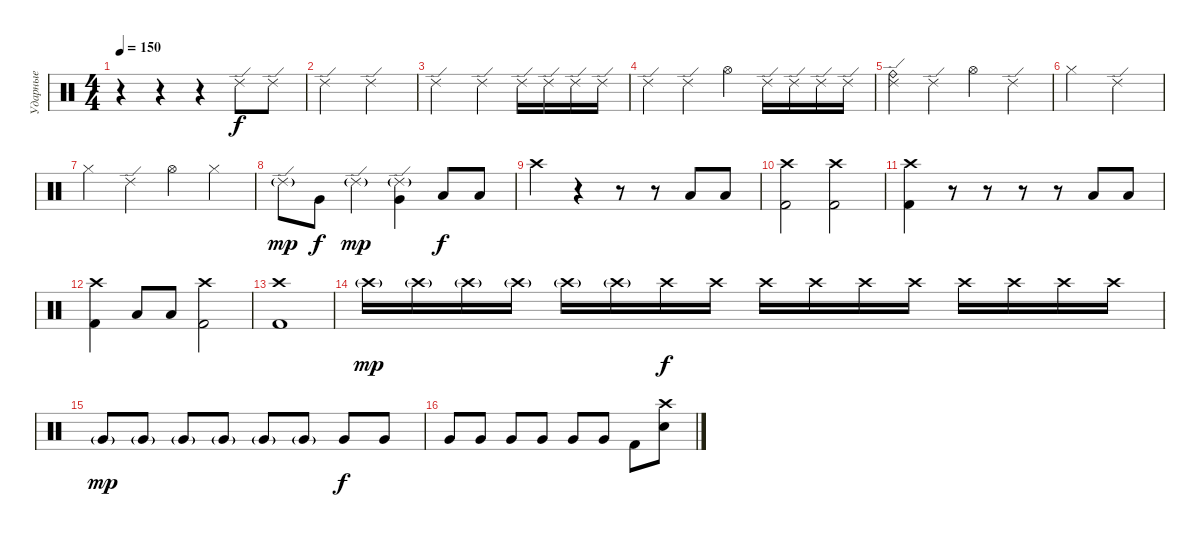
\track ("Ударные" "Ударные") {instrument percussion}
\staff {score}
\articulation defaults
\ts (4 4)
\tempo 150
\clef neutral
\ks c
r.4{dy f} r.4 r.4 "Ride (edge) 2".8 "Ride (edge) 2".8 |
"Ride (edge) 2".2 "Ride (edge) 2".2 |
"Ride (edge) 2".2 "Ride (edge) 2".4 "Ride (edge) 2".16 "Ride (edge) 2".16 "Ride (edge) 2".16 "Ride (edge) 2".16 |
"Ride (edge) 2".4 "Ride (edge) 2".4 "Hi-Hat (open)".4 "Ride (edge) 2".16 "Ride (edge) 2".16 "Ride (edge) 2".16 "Ride (edge) 2".16 |
("Ride (edge) 2" "Ride (bell)").4 "Ride (edge) 2".4 "Hi-Hat (open)".4 "Ride (edge) 2".4 |
"Hi-Hat (closed)".2 "Ride (edge) 2".2 |
"Hi-Hat (closed)".4 "Ride (edge) 2".4 "Hi-Hat (open)".4 "Hi-Hat (closed)".4 |
"Ride (edge) 2"{g}.8{dy mp} "Very Low Tom (hit)".8{dy f} "Ride (edge) 2"{g}.4{dy mp} ("Ride (edge) 2"{g} "Very Low Tom (hit)").4 "Low Floor Tom (hit)".8{dy f} "Low Floor Tom (hit)".8 |
"Crash high (hit)".4 r.4 r.8 r.8 "Low Floor Tom (hit)".8 "Low Floor Tom (hit)".8 |
("Crash high (hit)" "Kick (hit) 2").2 ("Crash high (hit)" "Kick (hit) 2").2 |
("Crash high (hit)" "Kick (hit) 2").4 r.8 r.8 r.8 r.8 "Low Floor Tom (hit)".8 "Low Floor Tom (hit)".8 |
("Crash high (hit)" "Kick (hit) 2").4 "Low Floor Tom (hit)".8 "Low Floor Tom (hit)".8 ("Crash high (hit)" "Kick (hit) 2").2 |
("Crash high (hit)" "Kick (hit) 2").1 |
"Crash high (hit)"{g}.16{dy mp} "Crash high (hit)"{g}.16 "Crash high (hit)"{g}.16 "Crash high (hit)"{g}.16 "Crash high (hit)"{g}.16 "Crash high (hit)"{g}.16 "Crash high (hit)".16{dy f} "Crash high (hit)".16 "Crash high (hit)".16 "Crash high (hit)".16 "Crash high (hit)".16 "Crash high (hit)".16 "Crash high (hit)".16 "Crash high (hit)".16 "Crash high (hit)".16 "Crash high (hit)".16 |
"Very Low Tom (hit)"{g}.8{dy mp} "Very Low Tom (hit)"{g}.8 "Very Low Tom (hit)"{g}.8 "Very Low Tom (hit)"{g}.8 "Very Low Tom (hit)"{g}.8 "Very Low Tom (hit)"{g}.8 "Very Low Tom (hit)".8{dy f} "Very Low Tom (hit)".8 |
"Very Low Tom (hit)".8 "Very Low Tom (hit)".8 "Very Low Tom (hit)".8 "Very Low Tom (hit)".8 "Very Low Tom (hit)".8 "Very Low Tom (hit)".8 "Kick (hit) 2".8 ("Crash high (hit)" "Snare (hit) 2").8
